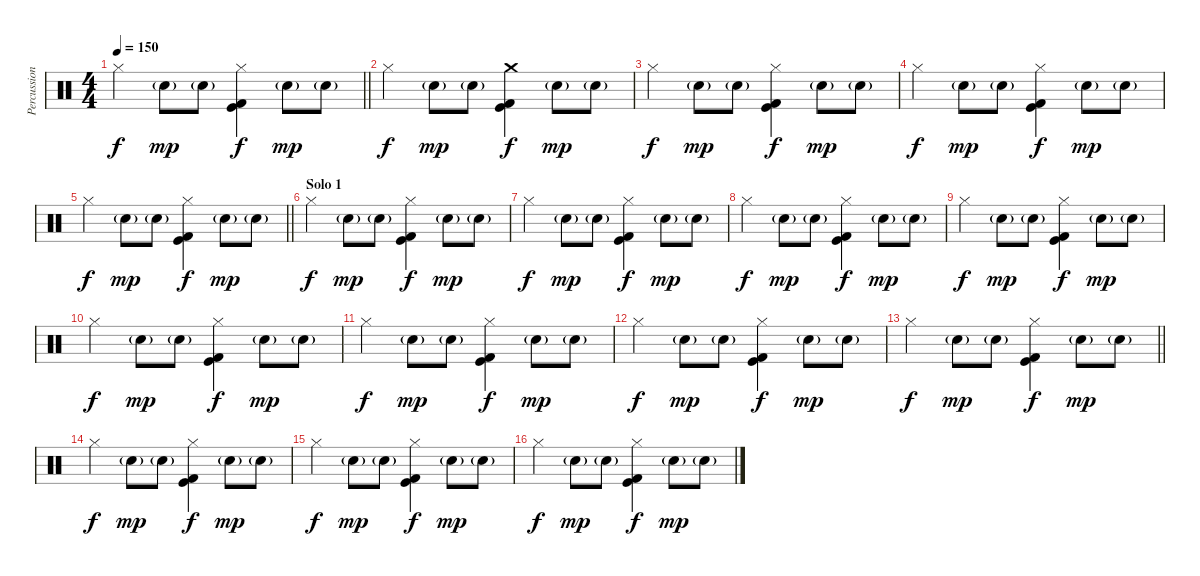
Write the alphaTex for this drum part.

\track ("Percussion" "Percussion") {instrument percussion}
\staff {score}
\articulation defaults
\ts (4 4)
\tempo 150
\clef neutral
\barLineRight lightlight
\ks c "Hi-Hat (closed)".4{dy f} "Hand Clap (hit)"{g}.8{dy mp} "Hand Clap (hit)"{g}.8
("Hi-Hat (closed)" "Kick (hit)" "Kick (hit) 2").4{dy f} "Hand Clap (hit)"{g}.8{dy mp} "Hand Clap (hit)"{g}.8 |
\section ("" "")
"Hi-Hat (closed)".4{dy f} "Hand Clap (hit)"{g}.8{dy mp} "Hand Clap (hit)"{g}.8 ("Crash medium (hit)" "Kick (hit)" "Kick (hit) 2").4{dy f} "Hand Clap (hit)"{g}.8{dy mp} "Hand Clap (hit)"{g}.8 |
"Hi-Hat (closed)".4{dy f} "Hand Clap (hit)"{g}.8{dy mp} "Hand Clap (hit)"{g}.8 ("Hi-Hat (closed)" "Kick (hit)" "Kick (hit) 2").4{dy f} "Hand Clap (hit)"{g}.8{dy mp} "Hand Clap (hit)"{g}.8 |
"Hi-Hat (closed)".4{dy f} "Hand Clap (hit)"{g}.8{dy mp} "Hand Clap (hit)"{g}.8 ("Hi-Hat (closed)" "Kick (hit)" "Kick (hit) 2").4{dy f} "Hand Clap (hit)"{g}.8{dy mp} "Hand Clap (hit)"{g}.8 |
\barLineRight lightlight "Hi-Hat (closed)".4{dy f} "Hand Clap (hit)"{g}.8{dy mp} "Hand Clap (hit)"{g}.8
("Hi-Hat (closed)" "Kick (hit)" "Kick (hit) 2").4{dy f} "Hand Clap (hit)"{g}.8{dy mp} "Hand Clap (hit)"{g}.8 |
\section ("" "Solo 1")
"Hi-Hat (closed)".4{dy f} "Hand Clap (hit)"{g}.8{dy mp} "Hand Clap (hit)"{g}.8 ("Hi-Hat (closed)" "Kick (hit)" "Kick (hit) 2").4{dy f} "Hand Clap (hit)"{g}.8{dy mp} "Hand Clap (hit)"{g}.8 |
"Hi-Hat (closed)".4{dy f} "Hand Clap (hit)"{g}.8{dy mp} "Hand Clap (hit)"{g}.8 ("Hi-Hat (closed)" "Kick (hit)" "Kick (hit) 2").4{dy f} "Hand Clap (hit)"{g}.8{dy mp} "Hand Clap (hit)"{g}.8 |
"Hi-Hat (closed)".4{dy f} "Hand Clap (hit)"{g}.8{dy mp} "Hand Clap (hit)"{g}.8 ("Hi-Hat (closed)" "Kick (hit)" "Kick (hit) 2").4{dy f} "Hand Clap (hit)"{g}.8{dy mp} "Hand Clap (hit)"{g}.8 |
"Hi-Hat (closed)".4{dy f} "Hand Clap (hit)"{g}.8{dy mp} "Hand Clap (hit)"{g}.8 ("Hi-Hat (closed)" "Kick (hit)" "Kick (hit) 2").4{dy f} "Hand Clap (hit)"{g}.8{dy mp} "Hand Clap (hit)"{g}.8 |
"Hi-Hat (closed)".4{dy f} "Hand Clap (hit)"{g}.8{dy mp} "Hand Clap (hit)"{g}.8 ("Hi-Hat (closed)" "Kick (hit)" "Kick (hit) 2").4{dy f} "Hand Clap (hit)"{g}.8{dy mp} "Hand Clap (hit)"{g}.8 |
"Hi-Hat (closed)".4{dy f} "Hand Clap (hit)"{g}.8{dy mp} "Hand Clap (hit)"{g}.8 ("Hi-Hat (closed)" "Kick (hit)" "Kick (hit) 2").4{dy f} "Hand Clap (hit)"{g}.8{dy mp} "Hand Clap (hit)"{g}.8 |
"Hi-Hat (closed)".4{dy f} "Hand Clap (hit)"{g}.8{dy mp} "Hand Clap (hit)"{g}.8 ("Hi-Hat (closed)" "Kick (hit)" "Kick (hit) 2").4{dy f} "Hand Clap (hit)"{g}.8{dy mp} "Hand Clap (hit)"{g}.8 |
\barLineRight lightlight "Hi-Hat (closed)".4{dy f} "Hand Clap (hit)"{g}.8{dy mp} "Hand Clap (hit)"{g}.8
("Hi-Hat (closed)" "Kick (hit)" "Kick (hit) 2").4{dy f} "Hand Clap (hit)"{g}.8{dy mp} "Hand Clap (hit)"{g}.8 |
"Hi-Hat (closed)".4{dy f} "Hand Clap (hit)"{g}.8{dy mp} "Hand Clap (hit)"{g}.8 ("Hi-Hat (closed)" "Kick (hit)" "Kick (hit) 2").4{dy f} "Hand Clap (hit)"{g}.8{dy mp} "Hand Clap (hit)"{g}.8 |
"Hi-Hat (closed)".4{dy f} "Hand Clap (hit)"{g}.8{dy mp} "Hand Clap (hit)"{g}.8 ("Hi-Hat (closed)" "Kick (hit)" "Kick (hit) 2").4{dy f} "Hand Clap (hit)"{g}.8{dy mp} "Hand Clap (hit)"{g}.8 |
"Hi-Hat (closed)".4{dy f} "Hand Clap (hit)"{g}.8{dy mp} "Hand Clap (hit)"{g}.8 ("Hi-Hat (closed)" "Kick (hit)" "Kick (hit) 2").4{dy f} "Hand Clap (hit)"{g}.8{dy mp} "Hand Clap (hit)"{g}.8
